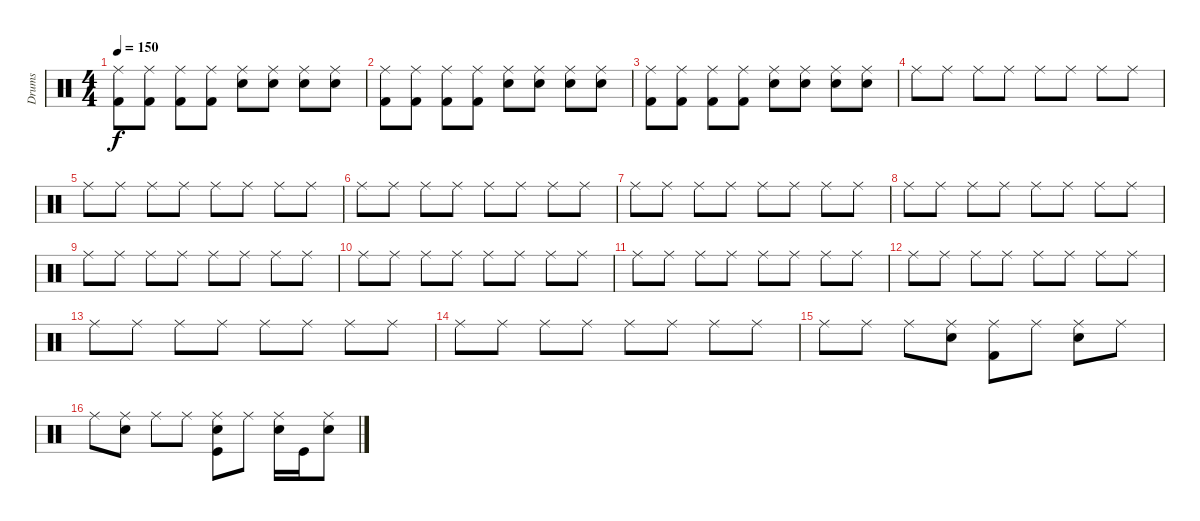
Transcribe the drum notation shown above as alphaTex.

\track ("Drums" "Drums") {instrument percussion}
\staff {score}
\articulation defaults
\ts (4 4)
\tempo 150
\clef neutral
\ks c
("Ride (middle)" "Kick (hit) 2").8{dy f} ("Ride (middle)" "Kick (hit) 2").8 ("Ride (middle)" "Kick (hit) 2").8 ("Ride (middle)" "Kick (hit) 2").8 ("Ride (middle)" "Snare (hit) 2").8 ("Ride (middle)" "Snare (hit) 2").8 ("Ride (middle)" "Snare (hit) 2").8 ("Ride (middle)" "Snare (hit) 2").8 |
("Ride (middle)" "Kick (hit) 2").8 ("Ride (middle)" "Kick (hit) 2").8 ("Ride (middle)" "Kick (hit) 2").8 ("Ride (middle)" "Kick (hit) 2").8 ("Ride (middle)" "Snare (hit) 2").8 ("Ride (middle)" "Snare (hit) 2").8 ("Ride (middle)" "Snare (hit) 2").8 ("Ride (middle)" "Snare (hit) 2").8 |
("Ride (middle)" "Kick (hit) 2").8 ("Ride (middle)" "Kick (hit) 2").8 ("Ride (middle)" "Kick (hit) 2").8 ("Ride (middle)" "Kick (hit) 2").8 ("Ride (middle)" "Snare (hit) 2").8 ("Ride (middle)" "Snare (hit) 2").8 ("Ride (middle)" "Snare (hit) 2").8 ("Ride (middle)" "Snare (hit) 2").8 |
"Ride (middle)".8 "Ride (middle)".8 "Ride (middle)".8 "Ride (middle)".8 "Ride (middle)".8 "Ride (middle)".8 "Ride (middle)".8 "Ride (middle)".8 |
"Ride (middle)".8 "Ride (middle)".8 "Ride (middle)".8 "Ride (middle)".8 "Ride (middle)".8 "Ride (middle)".8 "Ride (middle)".8 "Ride (middle)".8 |
"Ride (middle)".8 "Ride (middle)".8 "Ride (middle)".8 "Ride (middle)".8 "Ride (middle)".8 "Ride (middle)".8 "Ride (middle)".8 "Ride (middle)".8 |
"Ride (middle)".8 "Ride (middle)".8 "Ride (middle)".8 "Ride (middle)".8 "Ride (middle)".8 "Ride (middle)".8 "Ride (middle)".8 "Ride (middle)".8 |
"Ride (middle)".8 "Ride (middle)".8 "Ride (middle)".8 "Ride (middle)".8 "Ride (middle)".8 "Ride (middle)".8 "Ride (middle)".8 "Ride (middle)".8 |
"Ride (middle)".8 "Ride (middle)".8 "Ride (middle)".8 "Ride (middle)".8 "Ride (middle)".8 "Ride (middle)".8 "Ride (middle)".8 "Ride (middle)".8 |
"Ride (middle)".8 "Ride (middle)".8 "Ride (middle)".8 "Ride (middle)".8 "Ride (middle)".8 "Ride (middle)".8 "Ride (middle)".8 "Ride (middle)".8 |
"Ride (middle)".8 "Ride (middle)".8 "Ride (middle)".8 "Ride (middle)".8 "Ride (middle)".8 "Ride (middle)".8 "Ride (middle)".8 "Ride (middle)".8 |
"Ride (middle)".8 "Ride (middle)".8 "Ride (middle)".8 "Ride (middle)".8 "Ride (middle)".8 "Ride (middle)".8 "Ride (middle)".8 "Ride (middle)".8 |
"Ride (middle)".8 "Ride (middle)".8 "Ride (middle)".8 "Ride (middle)".8 "Ride (middle)".8 "Ride (middle)".8 "Ride (middle)".8 "Ride (middle)".8 |
"Ride (middle)".8 "Ride (middle)".8 "Ride (middle)".8 "Ride (middle)".8 "Ride (middle)".8 "Ride (middle)".8 "Ride (middle)".8 "Ride (middle)".8 |
"Ride (middle)".8 "Ride (middle)".8 "Ride (middle)".8 ("Ride (middle)" "Electric Snare (hit)").8 ("Ride (middle)" "Kick (hit) 2").8 "Ride (middle)".8 ("Ride (middle)" "Electric Snare (hit)").8 "Ride (middle)".8 |
"Ride (middle)".8 ("Snare (hit) 2" "Ride (middle)").8 "Ride (middle)".8 "Ride (middle)".8 ("Snare (hit) 2" "Kick (hit)" "Ride (middle)").8 "Ride (middle)".8 ("Electric Snare (hit)" "Ride (middle)").16 "Kick (hit)".16 ("Electric Snare (hit)" "Ride (middle)").8
